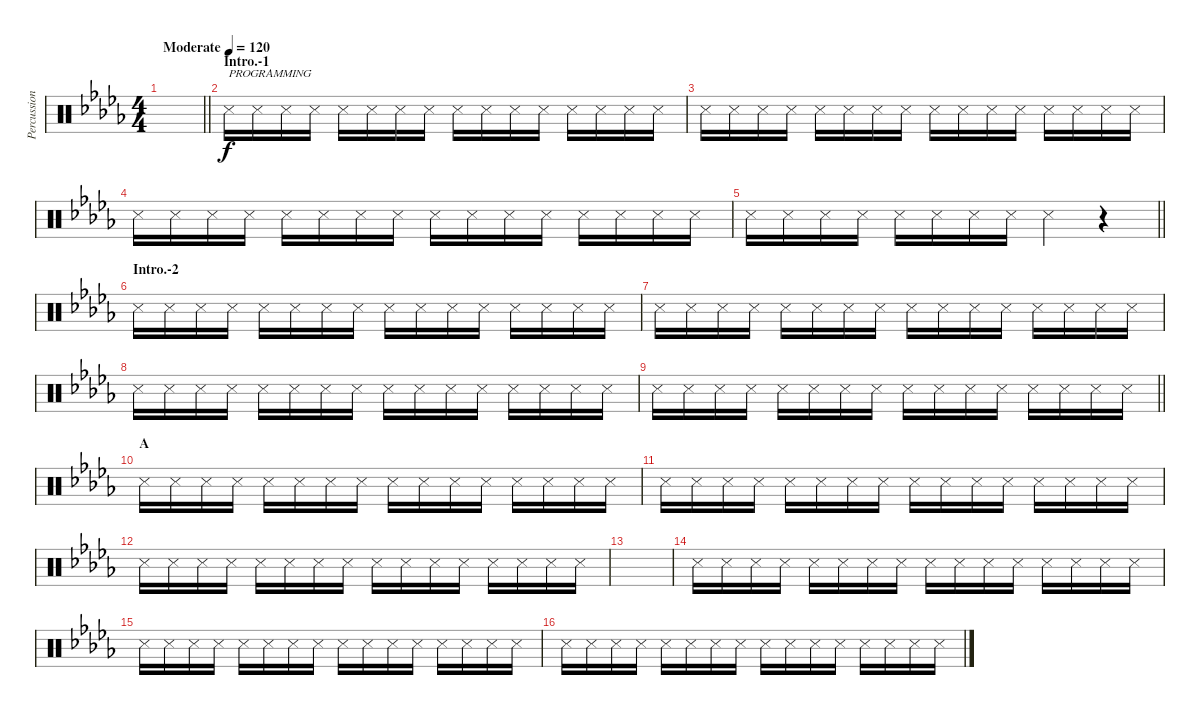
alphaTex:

\track ("Percussion A (Tainaka Ritsu)" "Percussion") {instrument percussion}
\staff {score}
\articulation defaults
\ts (4 4)
\tempo (120 "Moderate")
\clef neutral
\barLineRight lightlight
\ks db
|
\section ("" "Intro.-1")
"Snare (side stick) 3".16{txt "PROGRAMMING"} "Snare (side stick) 3".16 "Snare (side stick) 3".16 "Snare (side stick) 3".16 "Snare (side stick) 3".16 "Snare (side stick) 3".16 "Snare (side stick) 3".16 "Snare (side stick) 3".16 "Snare (side stick) 3".16 "Snare (side stick) 3".16 "Snare (side stick) 3".16 "Snare (side stick) 3".16 "Snare (side stick) 3".16 "Snare (side stick) 3".16 "Snare (side stick) 3".16 "Snare (side stick) 3".16 |
"Snare (side stick) 3".16 "Snare (side stick) 3".16 "Snare (side stick) 3".16 "Snare (side stick) 3".16 "Snare (side stick) 3".16 "Snare (side stick) 3".16 "Snare (side stick) 3".16 "Snare (side stick) 3".16 "Snare (side stick) 3".16 "Snare (side stick) 3".16 "Snare (side stick) 3".16 "Snare (side stick) 3".16 "Snare (side stick) 3".16 "Snare (side stick) 3".16 "Snare (side stick) 3".16 "Snare (side stick) 3".16 |
"Snare (side stick) 3".16 "Snare (side stick) 3".16 "Snare (side stick) 3".16 "Snare (side stick) 3".16 "Snare (side stick) 3".16 "Snare (side stick) 3".16 "Snare (side stick) 3".16 "Snare (side stick) 3".16 "Snare (side stick) 3".16 "Snare (side stick) 3".16 "Snare (side stick) 3".16 "Snare (side stick) 3".16 "Snare (side stick) 3".16 "Snare (side stick) 3".16 "Snare (side stick) 3".16 "Snare (side stick) 3".16 |
\barLineRight lightlight "Snare (side stick) 3".16 "Snare (side stick) 3".16 "Snare (side stick) 3".16 "Snare (side stick) 3".16 "Snare (side stick) 3".16 "Snare (side stick) 3".16 "Snare (side stick) 3".16 "Snare (side stick) 3".16 "Snare (side stick) 3".4
r.4 |
\section ("" "Intro.-2")
"Snare (side stick) 3".16 "Snare (side stick) 3".16 "Snare (side stick) 3".16 "Snare (side stick) 3".16 "Snare (side stick) 3".16 "Snare (side stick) 3".16 "Snare (side stick) 3".16 "Snare (side stick) 3".16 "Snare (side stick) 3".16 "Snare (side stick) 3".16 "Snare (side stick) 3".16 "Snare (side stick) 3".16 "Snare (side stick) 3".16 "Snare (side stick) 3".16 "Snare (side stick) 3".16 "Snare (side stick) 3".16 |
"Snare (side stick) 3".16 "Snare (side stick) 3".16 "Snare (side stick) 3".16 "Snare (side stick) 3".16 "Snare (side stick) 3".16 "Snare (side stick) 3".16 "Snare (side stick) 3".16 "Snare (side stick) 3".16 "Snare (side stick) 3".16 "Snare (side stick) 3".16 "Snare (side stick) 3".16 "Snare (side stick) 3".16 "Snare (side stick) 3".16 "Snare (side stick) 3".16 "Snare (side stick) 3".16 "Snare (side stick) 3".16 |
"Snare (side stick) 3".16 "Snare (side stick) 3".16 "Snare (side stick) 3".16 "Snare (side stick) 3".16 "Snare (side stick) 3".16 "Snare (side stick) 3".16 "Snare (side stick) 3".16 "Snare (side stick) 3".16 "Snare (side stick) 3".16 "Snare (side stick) 3".16 "Snare (side stick) 3".16 "Snare (side stick) 3".16 "Snare (side stick) 3".16 "Snare (side stick) 3".16 "Snare (side stick) 3".16 "Snare (side stick) 3".16 |
\barLineRight lightlight "Snare (side stick) 3".16 "Snare (side stick) 3".16 "Snare (side stick) 3".16 "Snare (side stick) 3".16 "Snare (side stick) 3".16 "Snare (side stick) 3".16 "Snare (side stick) 3".16 "Snare (side stick) 3".16 "Snare (side stick) 3".16 "Snare (side stick) 3".16 "Snare (side stick) 3".16 "Snare (side stick) 3".16 "Snare (side stick) 3".16 "Snare (side stick) 3".16 "Snare (side stick) 3".16 "Snare (side stick) 3".16
|
\section ("" "A")
"Snare (side stick) 3".16 "Snare (side stick) 3".16 "Snare (side stick) 3".16 "Snare (side stick) 3".16 "Snare (side stick) 3".16 "Snare (side stick) 3".16 "Snare (side stick) 3".16 "Snare (side stick) 3".16 "Snare (side stick) 3".16 "Snare (side stick) 3".16 "Snare (side stick) 3".16 "Snare (side stick) 3".16 "Snare (side stick) 3".16 "Snare (side stick) 3".16 "Snare (side stick) 3".16 "Snare (side stick) 3".16 |
"Snare (side stick) 3".16 "Snare (side stick) 3".16 "Snare (side stick) 3".16 "Snare (side stick) 3".16 "Snare (side stick) 3".16 "Snare (side stick) 3".16 "Snare (side stick) 3".16 "Snare (side stick) 3".16 "Snare (side stick) 3".16 "Snare (side stick) 3".16 "Snare (side stick) 3".16 "Snare (side stick) 3".16 "Snare (side stick) 3".16 "Snare (side stick) 3".16 "Snare (side stick) 3".16 "Snare (side stick) 3".16 |
"Snare (side stick) 3".16 "Snare (side stick) 3".16 "Snare (side stick) 3".16 "Snare (side stick) 3".16 "Snare (side stick) 3".16 "Snare (side stick) 3".16 "Snare (side stick) 3".16 "Snare (side stick) 3".16 "Snare (side stick) 3".16 "Snare (side stick) 3".16 "Snare (side stick) 3".16 "Snare (side stick) 3".16 "Snare (side stick) 3".16 "Snare (side stick) 3".16 "Snare (side stick) 3".16 "Snare (side stick) 3".16 |
|
"Snare (side stick) 3".16 "Snare (side stick) 3".16 "Snare (side stick) 3".16 "Snare (side stick) 3".16 "Snare (side stick) 3".16 "Snare (side stick) 3".16 "Snare (side stick) 3".16 "Snare (side stick) 3".16 "Snare (side stick) 3".16 "Snare (side stick) 3".16 "Snare (side stick) 3".16 "Snare (side stick) 3".16 "Snare (side stick) 3".16 "Snare (side stick) 3".16 "Snare (side stick) 3".16 "Snare (side stick) 3".16 |
"Snare (side stick) 3".16 "Snare (side stick) 3".16 "Snare (side stick) 3".16 "Snare (side stick) 3".16 "Snare (side stick) 3".16 "Snare (side stick) 3".16 "Snare (side stick) 3".16 "Snare (side stick) 3".16 "Snare (side stick) 3".16 "Snare (side stick) 3".16 "Snare (side stick) 3".16 "Snare (side stick) 3".16 "Snare (side stick) 3".16 "Snare (side stick) 3".16 "Snare (side stick) 3".16 "Snare (side stick) 3".16 |
"Snare (side stick) 3".16 "Snare (side stick) 3".16 "Snare (side stick) 3".16 "Snare (side stick) 3".16 "Snare (side stick) 3".16 "Snare (side stick) 3".16 "Snare (side stick) 3".16 "Snare (side stick) 3".16 "Snare (side stick) 3".16 "Snare (side stick) 3".16 "Snare (side stick) 3".16 "Snare (side stick) 3".16 "Snare (side stick) 3".16 "Snare (side stick) 3".16 "Snare (side stick) 3".16 "Snare (side stick) 3".16
